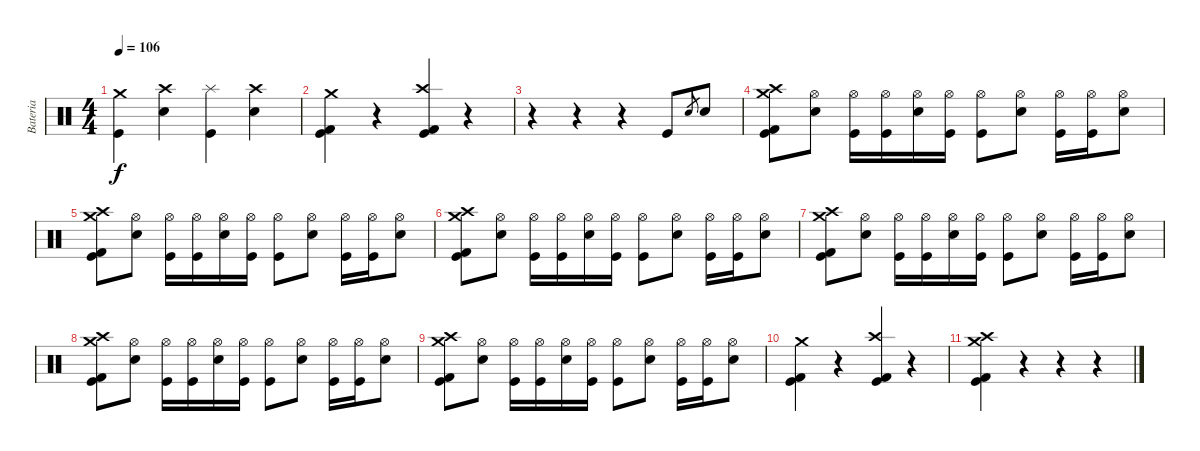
\track ("Bateria" "Bateria") {instrument percussion}
\staff {score}
\articulation defaults
\ts (4 4)
\tempo 106
\clef neutral
\ks c
("Crash medium (hit)" "Kick (hit)").4{dy f} ("Crash high (hit)" "Electric Snare (hit)").4 ("Splash (hit)" "Kick (hit)").4 ("Crash high (hit)" "Electric Snare (hit)").4 |
("Crash medium (hit)" "Kick (hit) 2" "Kick (hit)").4 r.4 ("Crash high (hit)" "Kick (hit) 2" "Kick (hit)").4 r.4 |
r.4 r.4 r.4 "Kick (hit)".8 "Electric Snare (hit)".8{gr} "Electric Snare (hit)".8 |
("Crash medium (hit)" "Crash high (hit)" "Kick (hit) 2" "Kick (hit)").8 ("Hi-Hat (open)" "Electric Snare (hit)").8 ("Hi-Hat (open)" "Kick (hit)").16 ("Hi-Hat (open)" "Kick (hit)").16 ("Hi-Hat (open)" "Electric Snare (hit)").16 ("Hi-Hat (open)" "Kick (hit)").16 ("Hi-Hat (open)" "Kick (hit)").8 ("Hi-Hat (open)" "Electric Snare (hit)").8 ("Hi-Hat (open)" "Kick (hit)").16 ("Hi-Hat (open)" "Kick (hit)").16 ("Hi-Hat (open)" "Electric Snare (hit)").8 |
("Crash medium (hit)" "Crash high (hit)" "Kick (hit) 2" "Kick (hit)").8 ("Hi-Hat (open)" "Electric Snare (hit)").8 ("Hi-Hat (open)" "Kick (hit)").16 ("Hi-Hat (open)" "Kick (hit)").16 ("Hi-Hat (open)" "Electric Snare (hit)").16 ("Hi-Hat (open)" "Kick (hit)").16 ("Hi-Hat (open)" "Kick (hit)").8 ("Hi-Hat (open)" "Electric Snare (hit)").8 ("Hi-Hat (open)" "Kick (hit)").16 ("Hi-Hat (open)" "Kick (hit)").16 ("Hi-Hat (open)" "Electric Snare (hit)").8 |
("Crash medium (hit)" "Crash high (hit)" "Kick (hit) 2" "Kick (hit)").8 ("Hi-Hat (open)" "Electric Snare (hit)").8 ("Hi-Hat (open)" "Kick (hit)").16 ("Hi-Hat (open)" "Kick (hit)").16 ("Hi-Hat (open)" "Electric Snare (hit)").16 ("Hi-Hat (open)" "Kick (hit)").16 ("Hi-Hat (open)" "Kick (hit)").8 ("Hi-Hat (open)" "Electric Snare (hit)").8 ("Hi-Hat (open)" "Kick (hit)").16 ("Hi-Hat (open)" "Kick (hit)").16 ("Hi-Hat (open)" "Electric Snare (hit)").8 |
("Crash medium (hit)" "Crash high (hit)" "Kick (hit) 2" "Kick (hit)").8 ("Hi-Hat (open)" "Electric Snare (hit)").8 ("Hi-Hat (open)" "Kick (hit)").16 ("Hi-Hat (open)" "Kick (hit)").16 ("Hi-Hat (open)" "Electric Snare (hit)").16 ("Hi-Hat (open)" "Kick (hit)").16 ("Hi-Hat (open)" "Kick (hit)").8 ("Hi-Hat (open)" "Electric Snare (hit)").8 ("Hi-Hat (open)" "Kick (hit)").16 ("Hi-Hat (open)" "Kick (hit)").16 ("Hi-Hat (open)" "Electric Snare (hit)").8 |
("Crash medium (hit)" "Crash high (hit)" "Kick (hit) 2" "Kick (hit)").8 ("Hi-Hat (open)" "Electric Snare (hit)").8 ("Hi-Hat (open)" "Kick (hit)").16 ("Hi-Hat (open)" "Kick (hit)").16 ("Hi-Hat (open)" "Electric Snare (hit)").16 ("Hi-Hat (open)" "Kick (hit)").16 ("Hi-Hat (open)" "Kick (hit)").8 ("Hi-Hat (open)" "Electric Snare (hit)").8 ("Hi-Hat (open)" "Kick (hit)").16 ("Hi-Hat (open)" "Kick (hit)").16 ("Hi-Hat (open)" "Electric Snare (hit)").8 |
("Crash medium (hit)" "Crash high (hit)" "Kick (hit) 2" "Kick (hit)").8 ("Hi-Hat (open)" "Electric Snare (hit)").8 ("Hi-Hat (open)" "Kick (hit)").16 ("Hi-Hat (open)" "Kick (hit)").16 ("Hi-Hat (open)" "Electric Snare (hit)").16 ("Hi-Hat (open)" "Kick (hit)").16 ("Hi-Hat (open)" "Kick (hit)").8 ("Hi-Hat (open)" "Electric Snare (hit)").8 ("Hi-Hat (open)" "Kick (hit)").16 ("Hi-Hat (open)" "Kick (hit)").16 ("Hi-Hat (open)" "Electric Snare (hit)").8 |
("Crash medium (hit)" "Kick (hit) 2" "Kick (hit)").4 r.4 ("Crash high (hit)" "Kick (hit) 2" "Kick (hit)").4 r.4 |
("Crash medium (hit)" "Crash high (hit)" "Kick (hit) 2" "Kick (hit)").4 r.4 r.4 r.4
